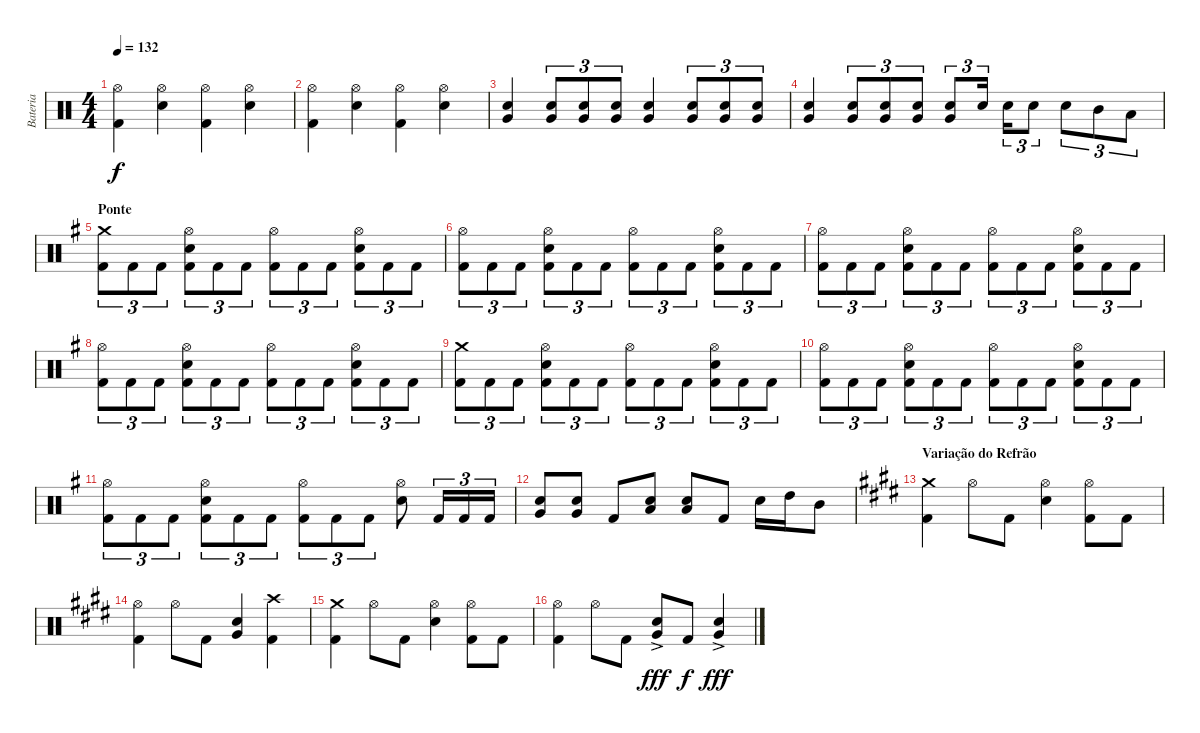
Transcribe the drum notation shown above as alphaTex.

\track ("Bateria" "Bateria") {instrument percussion}
\staff {score}
\articulation defaults
\ts (4 4)
\tempo 132
\clef neutral
\ks aminor
("Hi-Hat (open)" "Kick (hit) 2").4{dy f} ("Hi-Hat (open)" "Electric Snare (hit)").4 ("Hi-Hat (open)" "Kick (hit) 2").4 ("Hi-Hat (open)" "Electric Snare (hit)").4 |
("Hi-Hat (open)" "Kick (hit) 2").4 ("Hi-Hat (open)" "Electric Snare (hit)").4 ("Hi-Hat (open)" "Kick (hit) 2").4 ("Hi-Hat (open)" "Electric Snare (hit)").4 |
("Very Low Tom (hit)" "Electric Snare (hit)").4 ("Very Low Tom (hit)" "Electric Snare (hit)").8{tu (3 2)} ("Very Low Tom (hit)" "Electric Snare (hit)").8{tu (3 2)} ("Very Low Tom (hit)" "Electric Snare (hit)").8{tu (3 2)} ("Very Low Tom (hit)" "Electric Snare (hit)").4 ("Very Low Tom (hit)" "Electric Snare (hit)").8{tu (3 2)} ("Very Low Tom (hit)" "Electric Snare (hit)").8{tu (3 2)} ("Very Low Tom (hit)" "Electric Snare (hit)").8{tu (3 2)} |
("Very Low Tom (hit)" "Electric Snare (hit)").4 ("Very Low Tom (hit)" "Electric Snare (hit)").8{tu (3 2)} ("Very Low Tom (hit)" "Electric Snare (hit)").8{tu (3 2)} ("Very Low Tom (hit)" "Electric Snare (hit)").8{tu (3 2)} ("Very Low Tom (hit)" "Electric Snare (hit)").8{tu (3 2)} "Electric Snare (hit)".16{tu (3 2)} "Electric Snare (hit)".16{tu (3 2)} "Electric Snare (hit)".8{tu (3 2)} "Electric Snare (hit)".8{tu (3 2)} "Mid Tom (hit)".8{tu (3 2)} "Low Tom (hit)".8{tu (3 2)} |
\section ("" "Ponte")
\ks eminor
("Crash medium (hit)" "Kick (hit) 2").8{tu (3 2)} "Kick (hit) 2".8{tu (3 2)} "Kick (hit) 2".8{tu (3 2)} ("Hi-Hat (open)" "Electric Snare (hit)" "Kick (hit) 2").8{tu (3 2)} "Kick (hit) 2".8{tu (3 2)} "Kick (hit) 2".8{tu (3 2)} ("Hi-Hat (open)" "Kick (hit) 2").8{tu (3 2)} "Kick (hit) 2".8{tu (3 2)} "Kick (hit) 2".8{tu (3 2)} ("Hi-Hat (open)" "Electric Snare (hit)" "Kick (hit) 2").8{tu (3 2)} "Kick (hit) 2".8{tu (3 2)} "Kick (hit) 2".8{tu (3 2)} |
("Hi-Hat (open)" "Kick (hit) 2").8{tu (3 2)} "Kick (hit) 2".8{tu (3 2)} "Kick (hit) 2".8{tu (3 2)} ("Hi-Hat (open)" "Electric Snare (hit)" "Kick (hit) 2").8{tu (3 2)} "Kick (hit) 2".8{tu (3 2)} "Kick (hit) 2".8{tu (3 2)} ("Hi-Hat (open)" "Kick (hit) 2").8{tu (3 2)} "Kick (hit) 2".8{tu (3 2)} "Kick (hit) 2".8{tu (3 2)} ("Hi-Hat (open)" "Electric Snare (hit)" "Kick (hit) 2").8{tu (3 2)} "Kick (hit) 2".8{tu (3 2)} "Kick (hit) 2".8{tu (3 2)} |
("Hi-Hat (open)" "Kick (hit) 2").8{tu (3 2)} "Kick (hit) 2".8{tu (3 2)} "Kick (hit) 2".8{tu (3 2)} ("Hi-Hat (open)" "Electric Snare (hit)" "Kick (hit) 2").8{tu (3 2)} "Kick (hit) 2".8{tu (3 2)} "Kick (hit) 2".8{tu (3 2)} ("Hi-Hat (open)" "Kick (hit) 2").8{tu (3 2)} "Kick (hit) 2".8{tu (3 2)} "Kick (hit) 2".8{tu (3 2)} ("Hi-Hat (open)" "Electric Snare (hit)" "Kick (hit) 2").8{tu (3 2)} "Kick (hit) 2".8{tu (3 2)} "Kick (hit) 2".8{tu (3 2)} |
("Hi-Hat (open)" "Kick (hit) 2").8{tu (3 2)} "Kick (hit) 2".8{tu (3 2)} "Kick (hit) 2".8{tu (3 2)} ("Hi-Hat (open)" "Electric Snare (hit)" "Kick (hit) 2").8{tu (3 2)} "Kick (hit) 2".8{tu (3 2)} "Kick (hit) 2".8{tu (3 2)} ("Hi-Hat (open)" "Kick (hit) 2").8{tu (3 2)} "Kick (hit) 2".8{tu (3 2)} "Kick (hit) 2".8{tu (3 2)} ("Hi-Hat (open)" "Electric Snare (hit)" "Kick (hit) 2").8{tu (3 2)} "Kick (hit) 2".8{tu (3 2)} "Kick (hit) 2".8{tu (3 2)} |
("Crash medium (hit)" "Kick (hit) 2").8{tu (3 2)} "Kick (hit) 2".8{tu (3 2)} "Kick (hit) 2".8{tu (3 2)} ("Hi-Hat (open)" "Electric Snare (hit)" "Kick (hit) 2").8{tu (3 2)} "Kick (hit) 2".8{tu (3 2)} "Kick (hit) 2".8{tu (3 2)} ("Hi-Hat (open)" "Kick (hit) 2").8{tu (3 2)} "Kick (hit) 2".8{tu (3 2)} "Kick (hit) 2".8{tu (3 2)} ("Hi-Hat (open)" "Electric Snare (hit)" "Kick (hit) 2").8{tu (3 2)} "Kick (hit) 2".8{tu (3 2)} "Kick (hit) 2".8{tu (3 2)} |
("Hi-Hat (open)" "Kick (hit) 2").8{tu (3 2)} "Kick (hit) 2".8{tu (3 2)} "Kick (hit) 2".8{tu (3 2)} ("Hi-Hat (open)" "Electric Snare (hit)" "Kick (hit) 2").8{tu (3 2)} "Kick (hit) 2".8{tu (3 2)} "Kick (hit) 2".8{tu (3 2)} ("Hi-Hat (open)" "Kick (hit) 2").8{tu (3 2)} "Kick (hit) 2".8{tu (3 2)} "Kick (hit) 2".8{tu (3 2)} ("Hi-Hat (open)" "Electric Snare (hit)" "Kick (hit) 2").8{tu (3 2)} "Kick (hit) 2".8{tu (3 2)} "Kick (hit) 2".8{tu (3 2)} |
("Hi-Hat (open)" "Kick (hit) 2").8{tu (3 2)} "Kick (hit) 2".8{tu (3 2)} "Kick (hit) 2".8{tu (3 2)} ("Hi-Hat (open)" "Electric Snare (hit)" "Kick (hit) 2").8{tu (3 2)} "Kick (hit) 2".8{tu (3 2)} "Kick (hit) 2".8{tu (3 2)} ("Hi-Hat (open)" "Kick (hit) 2").8{tu (3 2)} "Kick (hit) 2".8{tu (3 2)} "Kick (hit) 2".8{tu (3 2)} ("Hi-Hat (open)" "Electric Snare (hit)").8 "Kick (hit) 2".16{tu (3 2)} "Kick (hit) 2".16{tu (3 2)} "Kick (hit) 2".16{tu (3 2)} |
("Very Low Tom (hit)" "Electric Snare (hit)").8 ("Very Low Tom (hit)" "Electric Snare (hit)").8 "Kick (hit) 2".8 ("Low Floor Tom (hit)" "Electric Snare (hit)").8 ("Low Floor Tom (hit)" "Electric Snare (hit)").8 "Kick (hit) 2".8 "Electric Snare (hit)".16 "High Tom (hit)".16 "Mid Tom (hit)".8 |
\section ("" "Variação do Refrão")
\ks c#minor
("Crash medium (hit)" "Kick (hit) 2").4 "Hi-Hat (open)".8 "Kick (hit) 2".8 ("Hi-Hat (open)" "Electric Snare (hit)").4 ("Hi-Hat (open)" "Kick (hit) 2").8 "Kick (hit) 2".8 |
("Hi-Hat (open)" "Kick (hit) 2").4 "Hi-Hat (open)".8 "Kick (hit) 2".8 ("Very Low Tom (hit)" "Electric Snare (hit)").4 ("Crash high (hit)" "Kick (hit) 2").4 |
("Crash medium (hit)" "Kick (hit) 2").4 "Hi-Hat (open)".8 "Kick (hit) 2".8 ("Hi-Hat (open)" "Electric Snare (hit)").4 ("Hi-Hat (open)" "Kick (hit) 2").8 "Kick (hit) 2".8 |
("Hi-Hat (open)" "Kick (hit) 2").4 "Hi-Hat (open)".8 "Kick (hit) 2".8 ("Very Low Tom (hit)"{ac} "Electric Snare (hit)").8{dy fff} "Kick (hit) 2".8{dy f} ("Very Low Tom (hit)"{ac} "Electric Snare (hit)").4{dy fff}
